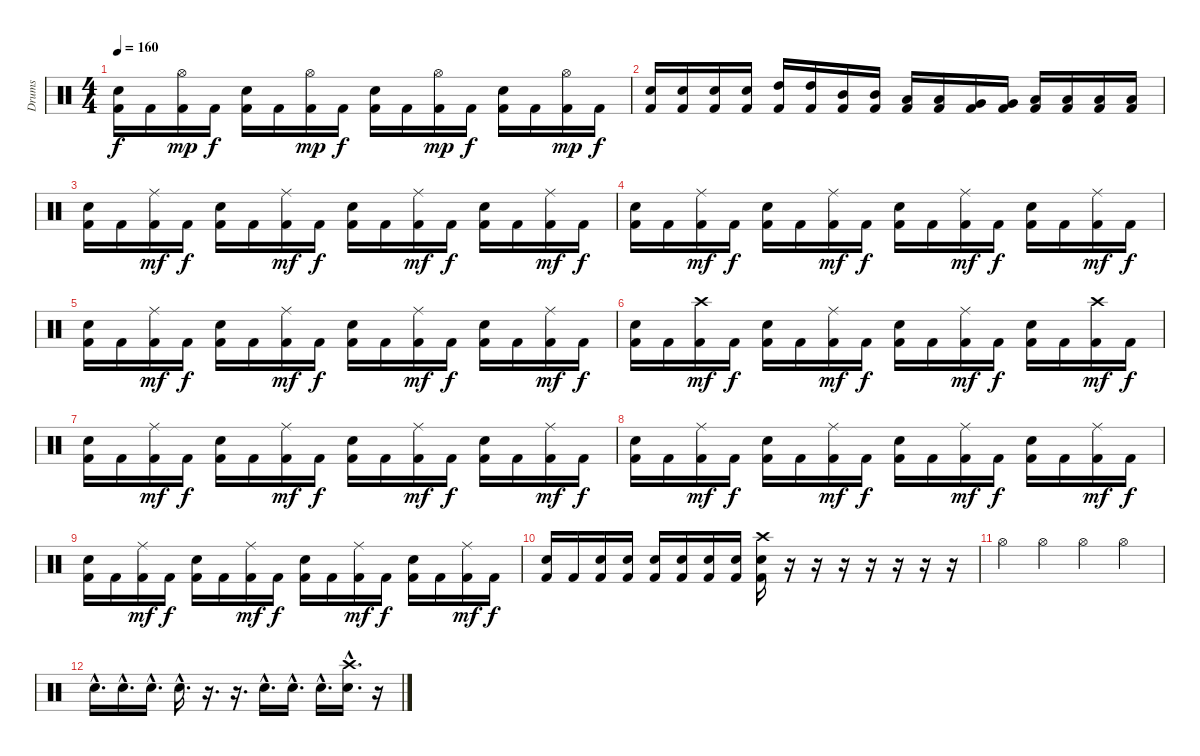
\track ("Drums" "Drums") {instrument percussion}
\staff {score}
\articulation defaults
\ts (4 4)
\tempo 160
\clef neutral
\ks c
("Electric Snare (hit)" "Kick (hit) 2").16{dy f} "Kick (hit) 2".16 ("Hi-Hat (open)" "Kick (hit) 2").16{dy mp} "Kick (hit) 2".16{dy f} ("Electric Snare (hit)" "Kick (hit) 2").16 "Kick (hit) 2".16 ("Hi-Hat (open)" "Kick (hit) 2").16{dy mp} "Kick (hit) 2".16{dy f} ("Electric Snare (hit)" "Kick (hit) 2").16 "Kick (hit) 2".16 ("Hi-Hat (open)" "Kick (hit) 2").16{dy mp} "Kick (hit) 2".16{dy f} ("Electric Snare (hit)" "Kick (hit) 2").16 "Kick (hit) 2".16 ("Hi-Hat (open)" "Kick (hit) 2").16{dy mp} "Kick (hit) 2".16{dy f} |
("Electric Snare (hit)" "Kick (hit) 2").16 ("Electric Snare (hit)" "Kick (hit) 2").16 ("Electric Snare (hit)" "Kick (hit) 2").16 ("Electric Snare (hit)" "Kick (hit) 2").16 ("High Tom (hit)" "Kick (hit) 2").16 ("High Tom (hit)" "Kick (hit) 2").16 ("Mid Tom (hit)" "Kick (hit) 2").16 ("Mid Tom (hit)" "Kick (hit) 2").16 ("Low Tom (hit)" "Kick (hit) 2").16 ("Low Tom (hit)" "Kick (hit) 2").16 ("Very Low Tom (hit)" "Kick (hit) 2").16 ("Very Low Tom (hit)" "Kick (hit) 2").16 ("Low Floor Tom (hit)" "Kick (hit) 2").16 ("Low Floor Tom (hit)" "Kick (hit) 2").16 ("Low Floor Tom (hit)" "Kick (hit) 2").16 ("Low Floor Tom (hit)" "Kick (hit) 2").16 |
("Electric Snare (hit)" "Kick (hit) 2").16 "Kick (hit) 2".16 ("Ride (middle)" "Kick (hit) 2").16{dy mf} "Kick (hit) 2".16{dy f} ("Electric Snare (hit)" "Kick (hit) 2").16 "Kick (hit) 2".16 ("Ride (middle)" "Kick (hit) 2").16{dy mf} "Kick (hit) 2".16{dy f} ("Electric Snare (hit)" "Kick (hit) 2").16 "Kick (hit) 2".16 ("Ride (middle)" "Kick (hit) 2").16{dy mf} "Kick (hit) 2".16{dy f} ("Electric Snare (hit)" "Kick (hit) 2").16 "Kick (hit) 2".16 ("Ride (middle)" "Kick (hit) 2").16{dy mf} "Kick (hit) 2".16{dy f} |
("Electric Snare (hit)" "Kick (hit) 2").16 "Kick (hit) 2".16 ("Ride (middle)" "Kick (hit) 2").16{dy mf} "Kick (hit) 2".16{dy f} ("Electric Snare (hit)" "Kick (hit) 2").16 "Kick (hit) 2".16 ("Ride (middle)" "Kick (hit) 2").16{dy mf} "Kick (hit) 2".16{dy f} ("Electric Snare (hit)" "Kick (hit) 2").16 "Kick (hit) 2".16 ("Ride (middle)" "Kick (hit) 2").16{dy mf} "Kick (hit) 2".16{dy f} ("Electric Snare (hit)" "Kick (hit) 2").16 "Kick (hit) 2".16 ("Ride (middle)" "Kick (hit) 2").16{dy mf} "Kick (hit) 2".16{dy f} |
("Electric Snare (hit)" "Kick (hit) 2").16 "Kick (hit) 2".16 ("Ride (middle)" "Kick (hit) 2").16{dy mf} "Kick (hit) 2".16{dy f} ("Electric Snare (hit)" "Kick (hit) 2").16 "Kick (hit) 2".16 ("Ride (middle)" "Kick (hit) 2").16{dy mf} "Kick (hit) 2".16{dy f} ("Electric Snare (hit)" "Kick (hit) 2").16 "Kick (hit) 2".16 ("Ride (middle)" "Kick (hit) 2").16{dy mf} "Kick (hit) 2".16{dy f} ("Electric Snare (hit)" "Kick (hit) 2").16 "Kick (hit) 2".16 ("Ride (middle)" "Kick (hit) 2").16{dy mf} "Kick (hit) 2".16{dy f} |
("Electric Snare (hit)" "Kick (hit) 2").16 "Kick (hit) 2".16 ("Crash high (hit)" "Kick (hit) 2").16{dy mf} "Kick (hit) 2".16{dy f} ("Electric Snare (hit)" "Kick (hit) 2").16 "Kick (hit) 2".16 ("Ride (middle)" "Kick (hit) 2").16{dy mf} "Kick (hit) 2".16{dy f} ("Electric Snare (hit)" "Kick (hit) 2").16 "Kick (hit) 2".16 ("Ride (middle)" "Kick (hit) 2").16{dy mf} "Kick (hit) 2".16{dy f} ("Electric Snare (hit)" "Kick (hit) 2").16 "Kick (hit) 2".16 ("Crash high (hit)" "Kick (hit) 2").16{dy mf} "Kick (hit) 2".16{dy f} |
("Electric Snare (hit)" "Kick (hit) 2").16 "Kick (hit) 2".16 ("Ride (middle)" "Kick (hit) 2").16{dy mf} "Kick (hit) 2".16{dy f} ("Electric Snare (hit)" "Kick (hit) 2").16 "Kick (hit) 2".16 ("Ride (middle)" "Kick (hit) 2").16{dy mf} "Kick (hit) 2".16{dy f} ("Electric Snare (hit)" "Kick (hit) 2").16 "Kick (hit) 2".16 ("Ride (middle)" "Kick (hit) 2").16{dy mf} "Kick (hit) 2".16{dy f} ("Electric Snare (hit)" "Kick (hit) 2").16 "Kick (hit) 2".16 ("Ride (middle)" "Kick (hit) 2").16{dy mf} "Kick (hit) 2".16{dy f} |
("Electric Snare (hit)" "Kick (hit) 2").16 "Kick (hit) 2".16 ("Ride (middle)" "Kick (hit) 2").16{dy mf} "Kick (hit) 2".16{dy f} ("Electric Snare (hit)" "Kick (hit) 2").16 "Kick (hit) 2".16 ("Ride (middle)" "Kick (hit) 2").16{dy mf} "Kick (hit) 2".16{dy f} ("Electric Snare (hit)" "Kick (hit) 2").16 "Kick (hit) 2".16 ("Ride (middle)" "Kick (hit) 2").16{dy mf} "Kick (hit) 2".16{dy f} ("Electric Snare (hit)" "Kick (hit) 2").16 "Kick (hit) 2".16 ("Ride (middle)" "Kick (hit) 2").16{dy mf} "Kick (hit) 2".16{dy f} |
("Electric Snare (hit)" "Kick (hit) 2").16 "Kick (hit) 2".16 ("Ride (middle)" "Kick (hit) 2").16{dy mf} "Kick (hit) 2".16{dy f} ("Electric Snare (hit)" "Kick (hit) 2").16 "Kick (hit) 2".16 ("Ride (middle)" "Kick (hit) 2").16{dy mf} "Kick (hit) 2".16{dy f} ("Electric Snare (hit)" "Kick (hit) 2").16 "Kick (hit) 2".16 ("Ride (middle)" "Kick (hit) 2").16{dy mf} "Kick (hit) 2".16{dy f} ("Electric Snare (hit)" "Kick (hit) 2").16 "Kick (hit) 2".16 ("Ride (middle)" "Kick (hit) 2").16{dy mf} "Kick (hit) 2".16{dy f} |
("Electric Snare (hit)" "Kick (hit) 2").16 "Kick (hit) 2".16 ("Electric Snare (hit)" "Kick (hit) 2").16 ("Electric Snare (hit)" "Kick (hit) 2").16 ("Electric Snare (hit)" "Kick (hit) 2").16 ("Electric Snare (hit)" "Kick (hit) 2").16 ("Electric Snare (hit)" "Kick (hit) 2").16 ("Electric Snare (hit)" "Kick (hit) 2").16 ("Crash high (hit)" "Electric Snare (hit)" "Kick (hit) 2").16 r.16 r.16 r.16 r.16 r.16 r.16 r.16 |
"Hi-Hat (open)".4 "Hi-Hat (open)".4 "Hi-Hat (open)".4 "Hi-Hat (open)".4 |
"Electric Snare (hit)"{hac}.16{d} "Electric Snare (hit)"{hac}.16{d} "Electric Snare (hit)"{hac}.16{d} "Electric Snare (hit)"{hac}.16{d} r.16{d} r.16{d} "Electric Snare (hit)"{hac}.16{d} "Electric Snare (hit)"{hac}.16{d} "Electric Snare (hit)"{hac}.16{d} ("Crash high (hit)"{hac} "Electric Snare (hit)"{hac}).16{d} r.16
